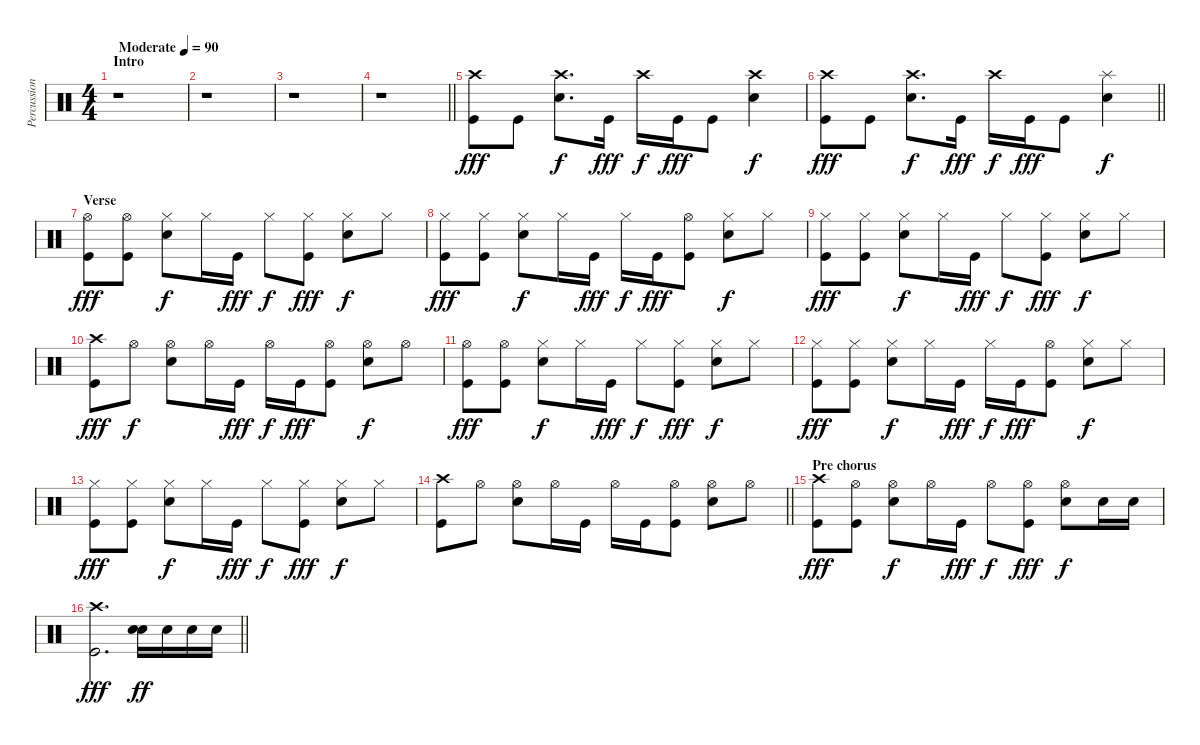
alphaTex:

\track ("Percussion" "Percussion") {instrument percussion}
\staff {score}
\articulation defaults
\ts (4 4)
\section ("" "Intro")
\tempo (90 "Moderate")
\clef neutral
\ks c
r.1{dy fff} |
r.1 |
r.1 |
\barLineRight lightlight
r.1 |
("Crash high (hit)" "Kick (hit)").8 "Kick (hit)".8 ("Crash high (hit)" "Electric Snare (hit)").8{d dy f} "Kick (hit)".16{dy fff} "Crash high (hit)".16{dy f} "Kick (hit)".16{dy fff} "Kick (hit)".8 ("Crash high (hit)" "Electric Snare (hit)").4{dy f} |
\barLineRight lightlight
("Crash high (hit)" "Kick (hit)").8{dy fff} "Kick (hit)".8 ("Crash high (hit)" "Electric Snare (hit)").8{d dy f} "Kick (hit)".16{dy fff} "Crash high (hit)".16{dy f} "Kick (hit)".16{dy fff} "Kick (hit)".8 ("Splash (hit)" "Electric Snare (hit)").4{dy f} |
\section ("" "Verse")
("Hi-Hat (open)" "Kick (hit)").8{dy fff} ("Hi-Hat (open)" "Kick (hit)").8 ("Hi-Hat (closed)" "Electric Snare (hit)").8{dy f} "Hi-Hat (closed)".16 "Kick (hit)".16{dy fff} "Hi-Hat (closed)".8{dy f} ("Hi-Hat (closed)" "Kick (hit)").8{dy fff} ("Hi-Hat (closed)" "Electric Snare (hit)").8{dy f} "Hi-Hat (closed)".8 |
("Hi-Hat (closed)" "Kick (hit)").8{dy fff} ("Hi-Hat (closed)" "Kick (hit)").8 ("Hi-Hat (closed)" "Electric Snare (hit)").8{dy f} "Hi-Hat (closed)".16 "Kick (hit)".16{dy fff} "Hi-Hat (closed)".16{dy f} "Kick (hit)".16{dy fff} ("Hi-Hat (open)" "Kick (hit)").8 ("Hi-Hat (closed)" "Electric Snare (hit)").8{dy f} "Hi-Hat (closed)".8 |
("Hi-Hat (closed)" "Kick (hit)").8{dy fff} ("Hi-Hat (closed)" "Kick (hit)").8 ("Hi-Hat (closed)" "Electric Snare (hit)").8{dy f} "Hi-Hat (closed)".16 "Kick (hit)".16{dy fff} "Hi-Hat (closed)".8{dy f} ("Hi-Hat (closed)" "Kick (hit)").8{dy fff} ("Hi-Hat (closed)" "Electric Snare (hit)").8{dy f} "Hi-Hat (closed)".8 |
("Crash high (hit)" "Kick (hit)").8{dy fff} "Hi-Hat (open)".8{dy f} ("Hi-Hat (open)" "Electric Snare (hit)").8 "Hi-Hat (open)".16 "Kick (hit)".16{dy fff} "Hi-Hat (open)".16{dy f} "Kick (hit)".16{dy fff} ("Hi-Hat (open)" "Kick (hit)").8 ("Hi-Hat (open)" "Electric Snare (hit)").8{dy f} "Hi-Hat (open)".8 |
("Hi-Hat (open)" "Kick (hit)").8{dy fff} ("Hi-Hat (open)" "Kick (hit)").8 ("Hi-Hat (closed)" "Electric Snare (hit)").8{dy f} "Hi-Hat (closed)".16 "Kick (hit)".16{dy fff} "Hi-Hat (closed)".8{dy f} ("Hi-Hat (closed)" "Kick (hit)").8{dy fff} ("Hi-Hat (closed)" "Electric Snare (hit)").8{dy f} "Hi-Hat (closed)".8 |
("Hi-Hat (closed)" "Kick (hit)").8{dy fff} ("Hi-Hat (closed)" "Kick (hit)").8 ("Hi-Hat (closed)" "Electric Snare (hit)").8{dy f} "Hi-Hat (closed)".16 "Kick (hit)".16{dy fff} "Hi-Hat (closed)".16{dy f} "Kick (hit)".16{dy fff} ("Hi-Hat (open)" "Kick (hit)").8 ("Hi-Hat (closed)" "Electric Snare (hit)").8{dy f} "Hi-Hat (closed)".8 |
("Hi-Hat (closed)" "Kick (hit)").8{dy fff} ("Hi-Hat (closed)" "Kick (hit)").8 ("Hi-Hat (closed)" "Electric Snare (hit)").8{dy f} "Hi-Hat (closed)".16 "Kick (hit)".16{dy fff} "Hi-Hat (closed)".8{dy f} ("Hi-Hat (closed)" "Kick (hit)").8{dy fff} ("Hi-Hat (closed)" "Electric Snare (hit)").8{dy f} "Hi-Hat (closed)".8 |
\barLineRight lightlight
("Crash high (hit)" "Kick (hit)").8 "Hi-Hat (open)".8 ("Hi-Hat (open)" "Electric Snare (hit)").8 "Hi-Hat (open)".16 "Kick (hit)".16 "Hi-Hat (open)".16 "Kick (hit)".16 ("Hi-Hat (open)" "Kick (hit)").8 ("Hi-Hat (open)" "Electric Snare (hit)").8 "Hi-Hat (open)".8 |
\section ("" "Pre chorus")
("Crash high (hit)" "Kick (hit)").8{dy fff} ("Hi-Hat (open)" "Kick (hit)").8 ("Hi-Hat (open)" "Electric Snare (hit)").8{dy f} "Hi-Hat (open)".16 "Kick (hit)".16{dy fff} "Hi-Hat (open)".8{dy f} ("Hi-Hat (open)" "Kick (hit)").8{dy fff} ("Hi-Hat (open)" "Electric Snare (hit)").8{dy f} "Electric Snare (hit)".16 "Electric Snare (hit)".16 |
\barLineRight lightlight
("Crash high (hit)" "Kick (hit)").2{d dy fff} ("Electric Snare (hit)" "Electric Snare (hit)").16{bd 60 dy ff} "Electric Snare (hit)".16 "Electric Snare (hit)".16 "Electric Snare (hit)".16
